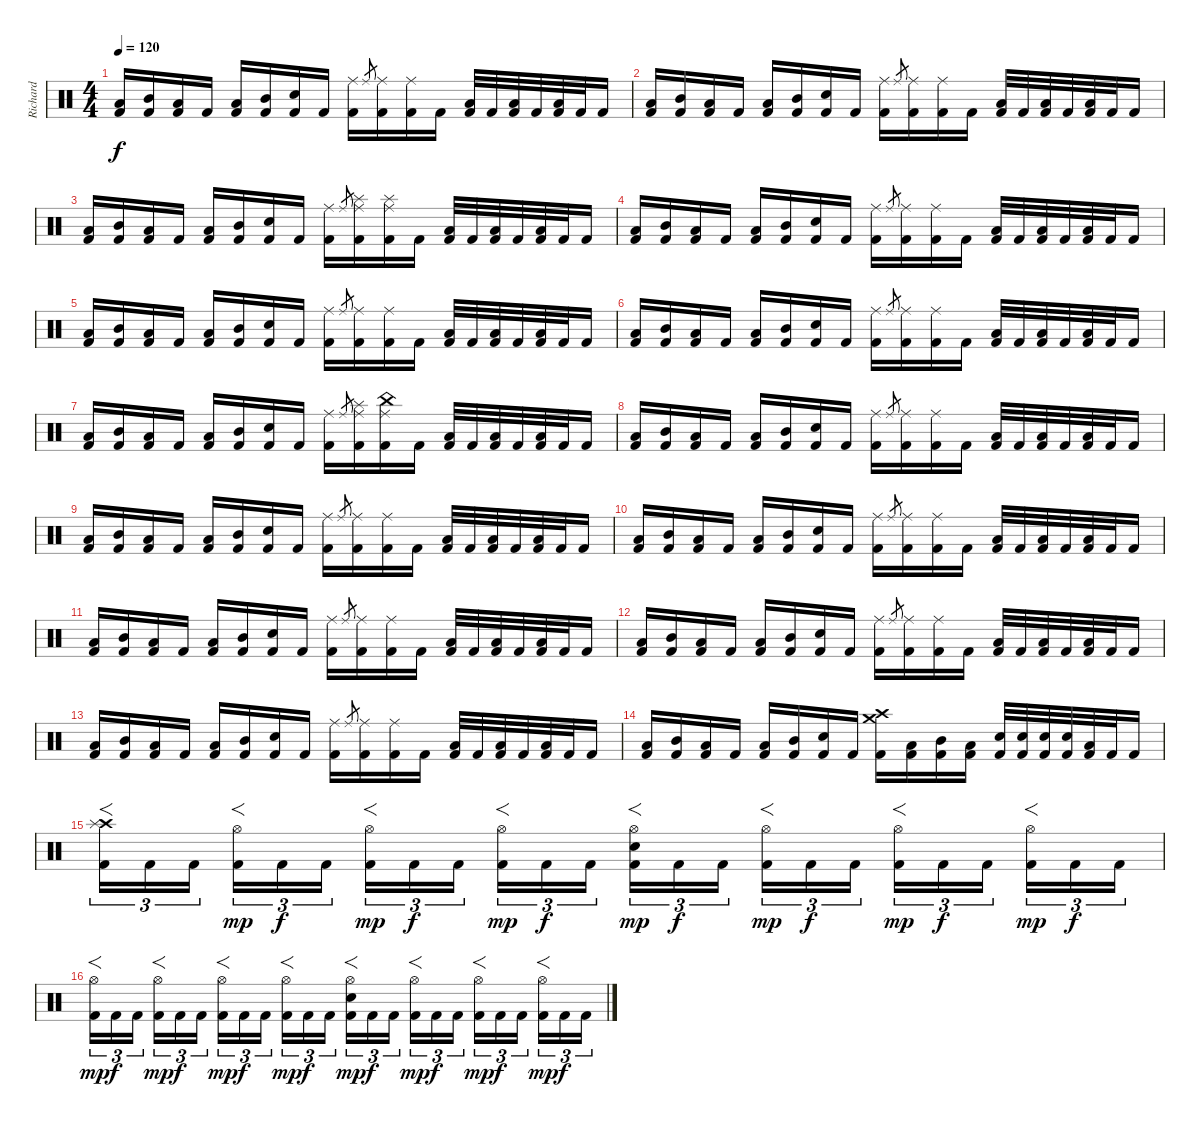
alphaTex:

\track ("Richard " "Richard ") {instrument percussion}
\staff {score}
\articulation defaults
\ts (4 4)
\tempo 120
\clef neutral
\ks c
("Low Tom (hit)" "Kick (hit) 2").16{dy f} ("Mid Tom (hit)" "Kick (hit) 2").16 ("Low Tom (hit)" "Kick (hit) 2").16 "Kick (hit) 2".16 ("Low Tom (hit)" "Kick (hit) 2").16 ("Mid Tom (hit)" "Kick (hit) 2").16 ("Snare (hit) 2" "Kick (hit) 2").16 "Kick (hit) 2".16 ("Ride (middle)" "Kick (hit) 2").16 "Ride (middle)".8{gr} ("Ride (middle)" "Kick (hit) 2").16 ("Ride (middle)" "Kick (hit) 2").16 "Kick (hit) 2".16 ("Low Tom (hit)" "Kick (hit) 2").32 "Kick (hit) 2".32 ("Low Tom (hit)" "Kick (hit) 2").32 "Kick (hit) 2".32 ("Low Tom (hit)" "Kick (hit) 2").32 "Kick (hit) 2".32 "Kick (hit) 2".16 |
("Low Tom (hit)" "Kick (hit) 2").16 ("Mid Tom (hit)" "Kick (hit) 2").16 ("Low Tom (hit)" "Kick (hit) 2").16 "Kick (hit) 2".16 ("Low Tom (hit)" "Kick (hit) 2").16 ("Mid Tom (hit)" "Kick (hit) 2").16 ("Snare (hit) 2" "Kick (hit) 2").16 "Kick (hit) 2".16 ("Ride (middle)" "Kick (hit) 2").16 "Ride (middle)".8{gr} ("Ride (middle)" "Kick (hit) 2").16 ("Ride (middle)" "Kick (hit) 2").16 "Kick (hit) 2".16 ("Low Tom (hit)" "Kick (hit) 2").32 "Kick (hit) 2".32 ("Low Tom (hit)" "Kick (hit) 2").32 "Kick (hit) 2".32 ("Low Tom (hit)" "Kick (hit) 2").32 "Kick (hit) 2".32 "Kick (hit) 2".16 |
("Low Tom (hit)" "Kick (hit) 2").16 ("Mid Tom (hit)" "Kick (hit) 2").16 ("Low Tom (hit)" "Kick (hit) 2").16 "Kick (hit) 2".16 ("Low Tom (hit)" "Kick (hit) 2").16 ("Mid Tom (hit)" "Kick (hit) 2").16 ("Snare (hit) 2" "Kick (hit) 2").16 "Kick (hit) 2".16 ("Ride (middle)" "Kick (hit) 2").16 "Ride (middle)".8{gr} ("Ride (middle)" "Splash (hit)" "Kick (hit) 2").16 ("Ride (middle)" "Splash (hit)" "Kick (hit) 2").16 "Kick (hit) 2".16 ("Low Tom (hit)" "Kick (hit) 2").32 "Kick (hit) 2".32 ("Low Tom (hit)" "Kick (hit) 2").32 "Kick (hit) 2".32 ("Low Tom (hit)" "Kick (hit) 2").32 "Kick (hit) 2".32 "Kick (hit) 2".16 |
("Low Tom (hit)" "Kick (hit) 2").16 ("Mid Tom (hit)" "Kick (hit) 2").16 ("Low Tom (hit)" "Kick (hit) 2").16 "Kick (hit) 2".16 ("Low Tom (hit)" "Kick (hit) 2").16 ("Mid Tom (hit)" "Kick (hit) 2").16 ("Snare (hit) 2" "Kick (hit) 2").16 "Kick (hit) 2".16 ("Ride (middle)" "Kick (hit) 2").16 "Ride (middle)".8{gr} ("Ride (middle)" "Kick (hit) 2").16 ("Ride (middle)" "Kick (hit) 2").16 "Kick (hit) 2".16 ("Low Tom (hit)" "Kick (hit) 2").32 "Kick (hit) 2".32 ("Low Tom (hit)" "Kick (hit) 2").32 "Kick (hit) 2".32 ("Low Tom (hit)" "Kick (hit) 2").32 "Kick (hit) 2".32 "Kick (hit) 2".16 |
("Low Tom (hit)" "Kick (hit) 2").16 ("Mid Tom (hit)" "Kick (hit) 2").16 ("Low Tom (hit)" "Kick (hit) 2").16 "Kick (hit) 2".16 ("Low Tom (hit)" "Kick (hit) 2").16 ("Mid Tom (hit)" "Kick (hit) 2").16 ("Snare (hit) 2" "Kick (hit) 2").16 "Kick (hit) 2".16 ("Ride (middle)" "Kick (hit) 2").16 "Ride (middle)".8{gr} ("Ride (middle)" "Kick (hit) 2").16 ("Ride (middle)" "Kick (hit) 2").16 "Kick (hit) 2".16 ("Low Tom (hit)" "Kick (hit) 2").32 "Kick (hit) 2".32 ("Low Tom (hit)" "Kick (hit) 2").32 "Kick (hit) 2".32 ("Low Tom (hit)" "Kick (hit) 2").32 "Kick (hit) 2".32 "Kick (hit) 2".16 |
("Low Tom (hit)" "Kick (hit) 2").16 ("Mid Tom (hit)" "Kick (hit) 2").16 ("Low Tom (hit)" "Kick (hit) 2").16 "Kick (hit) 2".16 ("Low Tom (hit)" "Kick (hit) 2").16 ("Mid Tom (hit)" "Kick (hit) 2").16 ("Snare (hit) 2" "Kick (hit) 2").16 "Kick (hit) 2".16 ("Ride (middle)" "Kick (hit) 2").16 "Ride (middle)".8{gr} ("Ride (middle)" "Kick (hit) 2").16 ("Ride (middle)" "Kick (hit) 2").16 "Kick (hit) 2".16 ("Low Tom (hit)" "Kick (hit) 2").32 "Kick (hit) 2".32 ("Low Tom (hit)" "Kick (hit) 2").32 "Kick (hit) 2".32 ("Low Tom (hit)" "Kick (hit) 2").32 "Kick (hit) 2".32 "Kick (hit) 2".16 |
("Low Tom (hit)" "Kick (hit) 2").16 ("Mid Tom (hit)" "Kick (hit) 2").16 ("Low Tom (hit)" "Kick (hit) 2").16 "Kick (hit) 2".16 ("Low Tom (hit)" "Kick (hit) 2").16 ("Mid Tom (hit)" "Kick (hit) 2").16 ("Snare (hit) 2" "Kick (hit) 2").16 "Kick (hit) 2".16 ("Ride (middle)" "Kick (hit) 2").16 "Ride (middle)".8{gr} ("Ride (middle)" "Splash (hit)" "Kick (hit) 2").16 ("Ride (middle)" "China (hit)" "Kick (hit) 2").16 "Kick (hit) 2".16 ("Low Tom (hit)" "Kick (hit) 2").32 "Kick (hit) 2".32 ("Low Tom (hit)" "Kick (hit) 2").32 "Kick (hit) 2".32 ("Low Tom (hit)" "Kick (hit) 2").32 "Kick (hit) 2".32 "Kick (hit) 2".16 |
("Low Tom (hit)" "Kick (hit) 2").16 ("Mid Tom (hit)" "Kick (hit) 2").16 ("Low Tom (hit)" "Kick (hit) 2").16 "Kick (hit) 2".16 ("Low Tom (hit)" "Kick (hit) 2").16 ("Mid Tom (hit)" "Kick (hit) 2").16 ("Snare (hit) 2" "Kick (hit) 2").16 "Kick (hit) 2".16 ("Ride (middle)" "Kick (hit) 2").16 "Ride (middle)".8{gr} ("Ride (middle)" "Kick (hit) 2").16 ("Ride (middle)" "Kick (hit) 2").16 "Kick (hit) 2".16 ("Low Tom (hit)" "Kick (hit) 2").32 "Kick (hit) 2".32 ("Low Tom (hit)" "Kick (hit) 2").32 "Kick (hit) 2".32 ("Low Tom (hit)" "Kick (hit) 2").32 "Kick (hit) 2".32 "Kick (hit) 2".16 |
("Low Tom (hit)" "Kick (hit) 2").16 ("Mid Tom (hit)" "Kick (hit) 2").16 ("Low Tom (hit)" "Kick (hit) 2").16 "Kick (hit) 2".16 ("Low Tom (hit)" "Kick (hit) 2").16 ("Mid Tom (hit)" "Kick (hit) 2").16 ("Snare (hit) 2" "Kick (hit) 2").16 "Kick (hit) 2".16 ("Ride (middle)" "Kick (hit) 2").16 "Ride (middle)".8{gr} ("Ride (middle)" "Kick (hit) 2").16 ("Ride (middle)" "Kick (hit) 2").16 "Kick (hit) 2".16 ("Low Tom (hit)" "Kick (hit) 2").32 "Kick (hit) 2".32 ("Low Tom (hit)" "Kick (hit) 2").32 "Kick (hit) 2".32 ("Low Tom (hit)" "Kick (hit) 2").32 "Kick (hit) 2".32 "Kick (hit) 2".16 |
("Low Tom (hit)" "Kick (hit) 2").16 ("Mid Tom (hit)" "Kick (hit) 2").16 ("Low Tom (hit)" "Kick (hit) 2").16 "Kick (hit) 2".16 ("Low Tom (hit)" "Kick (hit) 2").16 ("Mid Tom (hit)" "Kick (hit) 2").16 ("Snare (hit) 2" "Kick (hit) 2").16 "Kick (hit) 2".16 ("Ride (middle)" "Kick (hit) 2").16 "Ride (middle)".8{gr} ("Ride (middle)" "Kick (hit) 2").16 ("Ride (middle)" "Kick (hit) 2").16 "Kick (hit) 2".16 ("Low Tom (hit)" "Kick (hit) 2").32 "Kick (hit) 2".32 ("Low Tom (hit)" "Kick (hit) 2").32 "Kick (hit) 2".32 ("Low Tom (hit)" "Kick (hit) 2").32 "Kick (hit) 2".32 "Kick (hit) 2".16 |
("Low Tom (hit)" "Kick (hit) 2").16 ("Mid Tom (hit)" "Kick (hit) 2").16 ("Low Tom (hit)" "Kick (hit) 2").16 "Kick (hit) 2".16 ("Low Tom (hit)" "Kick (hit) 2").16 ("Mid Tom (hit)" "Kick (hit) 2").16 ("Snare (hit) 2" "Kick (hit) 2").16 "Kick (hit) 2".16 ("Ride (middle)" "Kick (hit) 2").16 "Ride (middle)".8{gr} ("Ride (middle)" "Kick (hit) 2").16 ("Ride (middle)" "Kick (hit) 2").16 "Kick (hit) 2".16 ("Low Tom (hit)" "Kick (hit) 2").32 "Kick (hit) 2".32 ("Low Tom (hit)" "Kick (hit) 2").32 "Kick (hit) 2".32 ("Low Tom (hit)" "Kick (hit) 2").32 "Kick (hit) 2".32 "Kick (hit) 2".16 |
("Low Tom (hit)" "Kick (hit) 2").16 ("Mid Tom (hit)" "Kick (hit) 2").16 ("Low Tom (hit)" "Kick (hit) 2").16 "Kick (hit) 2".16 ("Low Tom (hit)" "Kick (hit) 2").16 ("Mid Tom (hit)" "Kick (hit) 2").16 ("Snare (hit) 2" "Kick (hit) 2").16 "Kick (hit) 2".16 ("Ride (middle)" "Kick (hit) 2").16 "Ride (middle)".8{gr} ("Ride (middle)" "Kick (hit) 2").16 ("Ride (middle)" "Kick (hit) 2").16 "Kick (hit) 2".16 ("Low Tom (hit)" "Kick (hit) 2").32 "Kick (hit) 2".32 ("Low Tom (hit)" "Kick (hit) 2").32 "Kick (hit) 2".32 ("Low Tom (hit)" "Kick (hit) 2").32 "Kick (hit) 2".32 "Kick (hit) 2".16 |
("Low Tom (hit)" "Kick (hit) 2").16 ("Mid Tom (hit)" "Kick (hit) 2").16 ("Low Tom (hit)" "Kick (hit) 2").16 "Kick (hit) 2".16 ("Low Tom (hit)" "Kick (hit) 2").16 ("Mid Tom (hit)" "Kick (hit) 2").16 ("Snare (hit) 2" "Kick (hit) 2").16 "Kick (hit) 2".16 ("Ride (middle)" "Kick (hit) 2").16 "Ride (middle)".8{gr} ("Ride (middle)" "Kick (hit) 2").16 ("Ride (middle)" "Kick (hit) 2").16 "Kick (hit) 2".16 ("Low Tom (hit)" "Kick (hit) 2").32 "Kick (hit) 2".32 ("Low Tom (hit)" "Kick (hit) 2").32 "Kick (hit) 2".32 ("Low Tom (hit)" "Kick (hit) 2").32 "Kick (hit) 2".32 "Kick (hit) 2".16 |
("Low Tom (hit)" "Kick (hit) 2").16 ("Mid Tom (hit)" "Kick (hit) 2").16 ("Low Tom (hit)" "Kick (hit) 2").16 "Kick (hit) 2".16 ("Low Tom (hit)" "Kick (hit) 2").16 ("Mid Tom (hit)" "Kick (hit) 2").16 ("Snare (hit) 2" "Kick (hit) 2").16 "Kick (hit) 2".16 ("Crash high (hit)" "Crash medium (hit)" "Kick (hit) 2").16 ("Low Tom (hit)" "Kick (hit) 2").16 ("Mid Tom (hit)" "Kick (hit) 2").16 ("Low Tom (hit)" "Kick (hit) 2").16 ("Electric Snare (hit)" "Kick (hit) 2").32 ("Electric Snare (hit)" "Kick (hit) 2").32 ("Snare (hit) 2" "Kick (hit) 2").32 ("Snare (hit) 2" "Kick (hit) 2").32 ("Low Tom (hit)" "Kick (hit) 2").32 "Kick (hit) 2".32 "Kick (hit) 2".16 |
("Crash high (hit)" "Splash (hit)" "Kick (hit) 2").16{f tu (3 2)} "Kick (hit) 2".16{tu (3 2)} "Kick (hit) 2".16{tu (3 2)} ("Hi-Hat (open)" "Kick (hit) 2").16{f tu (3 2) dy mp} "Kick (hit) 2".16{tu (3 2) dy f} "Kick (hit) 2".16{tu (3 2)} ("Hi-Hat (open)" "Kick (hit) 2").16{f tu (3 2) dy mp} "Kick (hit) 2".16{tu (3 2) dy f} "Kick (hit) 2".16{tu (3 2)} ("Hi-Hat (open)" "Kick (hit) 2").16{f tu (3 2) dy mp} "Kick (hit) 2".16{tu (3 2) dy f} "Kick (hit) 2".16{tu (3 2)} ("Hi-Hat (open)" "Snare (hit) 2" "Kick (hit) 2").16{f tu (3 2) dy mp} "Kick (hit) 2".16{tu (3 2) dy f} "Kick (hit) 2".16{tu (3 2)} ("Hi-Hat (open)" "Kick (hit) 2").16{f tu (3 2) dy mp} "Kick (hit) 2".16{tu (3 2) dy f} "Kick (hit) 2".16{tu (3 2)} ("Hi-Hat (open)" "Kick (hit) 2").16{f tu (3 2) dy mp} "Kick (hit) 2".16{tu (3 2) dy f} "Kick (hit) 2".16{tu (3 2)} ("Hi-Hat (open)" "Kick (hit) 2").16{f tu (3 2) dy mp} "Kick (hit) 2".16{tu (3 2) dy f} "Kick (hit) 2".16{tu (3 2)} |
("Hi-Hat (open)" "Kick (hit) 2").16{f tu (3 2) dy mp} "Kick (hit) 2".16{tu (3 2) dy f} "Kick (hit) 2".16{tu (3 2)} ("Hi-Hat (open)" "Kick (hit) 2").16{f tu (3 2) dy mp} "Kick (hit) 2".16{tu (3 2) dy f} "Kick (hit) 2".16{tu (3 2)} ("Hi-Hat (open)" "Kick (hit) 2").16{f tu (3 2) dy mp} "Kick (hit) 2".16{tu (3 2) dy f} "Kick (hit) 2".16{tu (3 2)} ("Hi-Hat (open)" "Kick (hit) 2").16{f tu (3 2) dy mp} "Kick (hit) 2".16{tu (3 2) dy f} "Kick (hit) 2".16{tu (3 2)} ("Hi-Hat (open)" "Snare (hit) 2" "Kick (hit) 2").16{f tu (3 2) dy mp} "Kick (hit) 2".16{tu (3 2) dy f} "Kick (hit) 2".16{tu (3 2)} ("Hi-Hat (open)" "Kick (hit) 2").16{f tu (3 2) dy mp} "Kick (hit) 2".16{tu (3 2) dy f} "Kick (hit) 2".16{tu (3 2)} ("Hi-Hat (open)" "Kick (hit) 2").16{f tu (3 2) dy mp} "Kick (hit) 2".16{tu (3 2) dy f} "Kick (hit) 2".16{tu (3 2)} ("Hi-Hat (open)" "Kick (hit) 2").16{f tu (3 2) dy mp} "Kick (hit) 2".16{tu (3 2) dy f} "Kick (hit) 2".16{tu (3 2)}
